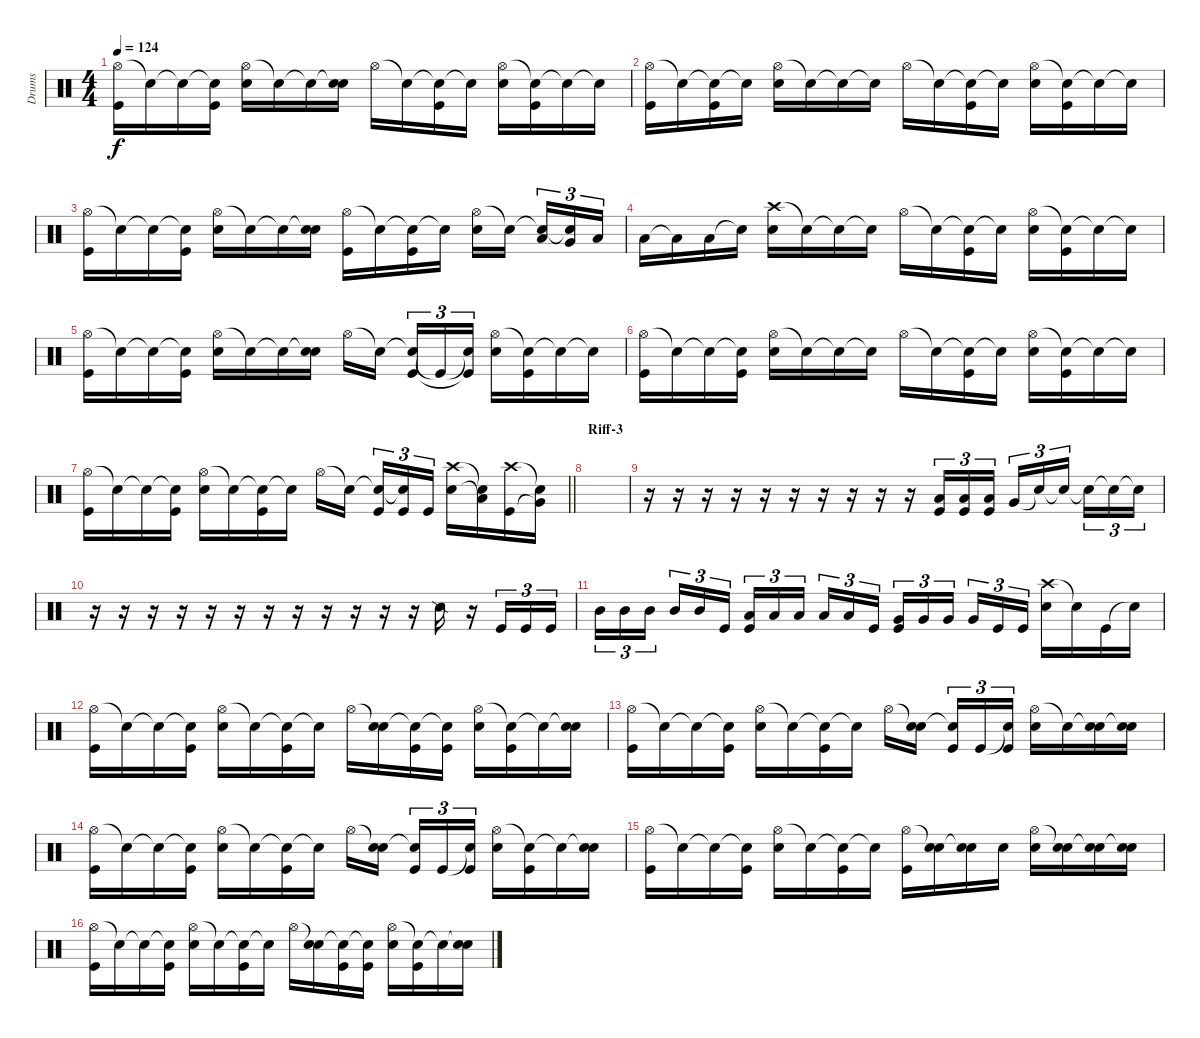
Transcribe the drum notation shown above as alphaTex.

\track ("Drums" "Drums") {instrument percussion}
\staff {score}
\articulation defaults
\ts (4 4)
\tempo 124
\clef neutral
\ks c
("Hi-Hat (open)" "Kick (hit)").16{dy f} "Snare (hit)"{t}.16 "Snare (hit)"{t}.16 ("Snare (hit)"{t} "Kick (hit)").16 ("Hi-Hat (open)" "Electric Snare (hit)").16 "Snare (hit)"{t}.16 "Snare (hit)"{t}.16 ("Snare (hit)"{t} "Electric Snare (hit)").16 "Hi-Hat (open)".16 "Snare (hit)"{t}.16 ("Snare (hit)"{t} "Kick (hit)").16 "Snare (hit)"{t}.16 ("Hi-Hat (open)" "Electric Snare (hit)").16 ("Snare (hit)"{t} "Kick (hit)").16 "Snare (hit)"{t}.16 "Snare (hit)"{t}.16 |
("Hi-Hat (open)" "Kick (hit)").16 "Snare (hit)"{t}.16 ("Snare (hit)"{t} "Kick (hit)").16 "Snare (hit)"{t}.16 ("Hi-Hat (open)" "Electric Snare (hit)").16 "Snare (hit)"{t}.16 "Snare (hit)"{t}.16 "Snare (hit)"{t}.16 "Hi-Hat (open)".16 "Snare (hit)"{t}.16 ("Snare (hit)"{t} "Kick (hit)").16 "Snare (hit)"{t}.16 ("Hi-Hat (open)" "Electric Snare (hit)").16 ("Snare (hit)"{t} "Kick (hit)").16 "Snare (hit)"{t}.16 "Snare (hit)"{t}.16 |
("Hi-Hat (open)" "Kick (hit)").16 "Snare (hit)"{t}.16 "Snare (hit)"{t}.16 ("Snare (hit)"{t} "Kick (hit)").16 ("Hi-Hat (open)" "Electric Snare (hit)").16 "Snare (hit)"{t}.16 "Snare (hit)"{t}.16 ("Snare (hit)"{t} "Electric Snare (hit)").16 ("Hi-Hat (open)" "Kick (hit)").16 "Snare (hit)"{t}.16 ("Snare (hit)"{t} "Kick (hit)").16 "Snare (hit)"{t}.16 ("Hi-Hat (open)" "Electric Snare (hit)").16 "Snare (hit)"{t}.16 ("Snare (hit)"{t} "Low Floor Tom (hit)").16{tu (3 2)} ("Snare (hit)"{t} "Very Low Tom (hit)").16{tu (3 2)} "Low Floor Tom (hit)".16{tu (3 2)} |
"Low Floor Tom (hit)".16 "Low Floor Tom (hit)"{t}.16 "Low Floor Tom (hit)".16 "Snare (hit)"{t}.16 ("Crash high (hit)" "Electric Snare (hit)").16 "Snare (hit)"{t}.16 "Snare (hit)"{t}.16 "Snare (hit)"{t}.16 "Hi-Hat (open)".16 "Snare (hit)"{t}.16 ("Snare (hit)"{t} "Kick (hit)").16 "Snare (hit)"{t}.16 ("Hi-Hat (open)" "Electric Snare (hit)").16 ("Snare (hit)"{t} "Kick (hit)").16 "Snare (hit)"{t}.16 "Snare (hit)"{t}.16 |
("Hi-Hat (open)" "Kick (hit)").16 "Snare (hit)"{t}.16 "Snare (hit)"{t}.16 ("Snare (hit)"{t} "Kick (hit)").16 ("Hi-Hat (open)" "Electric Snare (hit)").16 "Snare (hit)"{t}.16 "Snare (hit)"{t}.16 ("Snare (hit)"{t} "Electric Snare (hit)").16 "Hi-Hat (open)".16 "Snare (hit)"{t}.16 ("Snare (hit)"{t} "Kick (hit)").16{tu (3 2)} "Kick (hit)"{t}.16{tu (3 2)} ("Snare (hit)"{t} "Kick (hit)"{t}).16{tu (3 2)} ("Hi-Hat (open)" "Electric Snare (hit)").16 ("Snare (hit)"{t} "Kick (hit)").16 "Snare (hit)"{t}.16 "Snare (hit)"{t}.16 |
("Hi-Hat (open)" "Kick (hit)").16 "Snare (hit)"{t}.16 "Snare (hit)"{t}.16 ("Snare (hit)"{t} "Kick (hit)").16 ("Hi-Hat (open)" "Electric Snare (hit)").16 "Snare (hit)"{t}.16 "Snare (hit)"{t}.16 "Snare (hit)"{t}.16 "Hi-Hat (open)".16 "Snare (hit)"{t}.16 ("Snare (hit)"{t} "Kick (hit)").16 "Snare (hit)"{t}.16 ("Hi-Hat (open)" "Electric Snare (hit)").16 ("Snare (hit)"{t} "Kick (hit)").16 "Snare (hit)"{t}.16 "Snare (hit)"{t}.16 |
\barLineRight lightlight
("Hi-Hat (open)" "Kick (hit)").16 "Snare (hit)"{t}.16 "Snare (hit)"{t}.16 ("Snare (hit)"{t} "Kick (hit)").16 ("Hi-Hat (open)" "Electric Snare (hit)").16 "Snare (hit)"{t}.16 ("Snare (hit)"{t} "Kick (hit)").16 "Snare (hit)"{t}.16 "Hi-Hat (open)".16 "Snare (hit)"{t}.16 ("Snare (hit)"{t} "Kick (hit)").16{tu (3 2)} ("Snare (hit)"{t} "Kick (hit)").16{tu (3 2)} "Kick (hit)".16{tu (3 2)} ("Crash high (hit)" "Electric Snare (hit)").16 ("Snare (hit)"{t} "Low Tom (hit)"{t}).16 ("Crash high (hit)" "Kick (hit)").16 ("Snare (hit)"{t} "Very Low Tom (hit)"{t}).16 |
\section ("" "Riff-3")
|
r.16 r.16 r.16 r.16 r.16 r.16 r.16 r.16 r.16 r.16 ("Kick (hit)" "Low Floor Tom (hit)").16{tu (3 2)} ("Kick (hit)" "Low Floor Tom (hit)").16{tu (3 2)} ("Kick (hit)" "Low Floor Tom (hit)").16{tu (3 2)} "Very Low Tom (hit)".16{tu (3 2)} "Snare (hit)"{t}.16{tu (3 2)} "Snare (hit)"{t}.16{tu (3 2)} "Snare (hit)"{t}.16{tu (3 2)} "Snare (hit)"{t}.16{tu (3 2)} "Snare (hit)"{t}.16{tu (3 2)} |
r.16 r.16 r.16 r.16 r.16 r.16 r.16 r.16 r.16 r.16 r.16 r.16 "Snare (side stick) 2".16 r.16 "Kick (hit)".16{tu (3 2)} "Kick (hit)".16{tu (3 2)} "Kick (hit)".16{tu (3 2)} |
"Mid Tom (hit)".16{tu (3 2)} "Mid Tom (hit)".16{tu (3 2)} "Mid Tom (hit)".16{tu (3 2)} "Mid Tom (hit)".16{tu (3 2)} "Mid Tom (hit)".16{tu (3 2)} "Kick (hit)".16{tu (3 2)} ("Kick (hit)" "Low Tom (hit)").16{tu (3 2)} "Low Tom (hit)".16{tu (3 2)} "Low Tom (hit)".16{tu (3 2)} "Low Tom (hit)".16{tu (3 2)} "Low Tom (hit)".16{tu (3 2)} "Kick (hit)".16{tu (3 2)} ("Kick (hit)" "Very Low Tom (hit)").16{tu (3 2)} "Very Low Tom (hit)".16{tu (3 2)} "Very Low Tom (hit)".16{tu (3 2)} "Very Low Tom (hit)".16{tu (3 2)} "Kick (hit)".16{tu (3 2)} "Kick (hit)".16{tu (3 2)} ("Crash high (hit)" "Electric Snare (hit)").16 "Snare (hit)"{t}.16 "Kick (hit)".16 "Snare (hit)"{t}.16 |
("Hi-Hat (open)" "Kick (hit)").16 "Snare (hit)"{t}.16 "Snare (hit)"{t}.16 ("Snare (hit)"{t} "Kick (hit)").16 ("Hi-Hat (open)" "Electric Snare (hit)").16 "Snare (hit)"{t}.16 ("Snare (hit)"{t} "Kick (hit)").16 "Snare (hit)"{t}.16 "Hi-Hat (open)".16 ("Snare (hit)"{t} "Electric Snare (hit)").16 ("Snare (hit)"{t} "Kick (hit)").16 ("Snare (hit)"{t} "Kick (hit)").16 ("Hi-Hat (open)" "Electric Snare (hit)").16 ("Snare (hit)"{t} "Kick (hit)").16 "Snare (hit)"{t}.16 ("Snare (hit)"{t} "Electric Snare (hit)").16 |
("Hi-Hat (open)" "Kick (hit)").16 "Snare (hit)"{t}.16 "Snare (hit)"{t}.16 ("Snare (hit)"{t} "Kick (hit)").16 ("Hi-Hat (open)" "Electric Snare (hit)").16 "Snare (hit)"{t}.16 ("Snare (hit)"{t} "Kick (hit)").16 "Snare (hit)"{t}.16 "Hi-Hat (open)".16 ("Snare (hit)"{t} "Electric Snare (hit)").16 ("Snare (hit)"{t} "Kick (hit)").16{tu (3 2)} "Kick (hit)".16{tu (3 2)} ("Snare (hit)"{t} "Kick (hit)").16{tu (3 2)} ("Hi-Hat (open)" "Electric Snare (hit)").16 "Snare (hit)"{t}.16 ("Snare (hit)"{t} "Electric Snare (hit)").16 ("Snare (hit)"{t} "Electric Snare (hit)").16 |
("Hi-Hat (open)" "Kick (hit)").16 "Snare (hit)"{t}.16 "Snare (hit)"{t}.16 ("Snare (hit)"{t} "Kick (hit)").16 ("Hi-Hat (open)" "Electric Snare (hit)").16 "Snare (hit)"{t}.16 ("Snare (hit)"{t} "Kick (hit)").16 "Snare (hit)"{t}.16 "Hi-Hat (open)".16 ("Snare (hit)"{t} "Electric Snare (hit)").16 ("Snare (hit)"{t} "Kick (hit)").16{tu (3 2)} "Kick (hit)".16{tu (3 2)} ("Snare (hit)"{t} "Kick (hit)").16{tu (3 2)} ("Hi-Hat (open)" "Electric Snare (hit)").16 ("Snare (hit)"{t} "Kick (hit)").16 "Snare (hit)"{t}.16 ("Snare (hit)"{t} "Electric Snare (hit)").16 |
("Hi-Hat (open)" "Kick (hit)").16 "Snare (hit)"{t}.16 "Snare (hit)"{t}.16 ("Snare (hit)"{t} "Kick (hit)").16 ("Hi-Hat (open)" "Electric Snare (hit)").16 "Snare (hit)"{t}.16 ("Snare (hit)"{t} "Kick (hit)").16 "Snare (hit)"{t}.16 ("Hi-Hat (open)" "Kick (hit)").16 ("Snare (hit)"{t} "Electric Snare (hit)").16 ("Snare (hit)"{t} "Electric Snare (hit)").16 "Electric Snare (hit)".16 ("Hi-Hat (open)" "Electric Snare (hit)").16 ("Snare (hit)"{t} "Electric Snare (hit)").16 ("Snare (hit)"{t} "Electric Snare (hit)").16 ("Snare (hit)"{t} "Electric Snare (hit)").16 |
("Hi-Hat (open)" "Kick (hit)").16 "Snare (hit)"{t}.16 "Snare (hit)"{t}.16 ("Snare (hit)"{t} "Kick (hit)").16 ("Hi-Hat (open)" "Electric Snare (hit)").16 "Snare (hit)"{t}.16 ("Snare (hit)"{t} "Kick (hit)").16 "Snare (hit)"{t}.16 "Hi-Hat (open)".16 ("Snare (hit)"{t} "Electric Snare (hit)").16 ("Snare (hit)"{t} "Kick (hit)").16 ("Snare (hit)"{t} "Kick (hit)").16 ("Hi-Hat (open)" "Electric Snare (hit)").16 ("Snare (hit)"{t} "Kick (hit)").16 "Snare (hit)"{t}.16 ("Snare (hit)"{t} "Electric Snare (hit)").16
